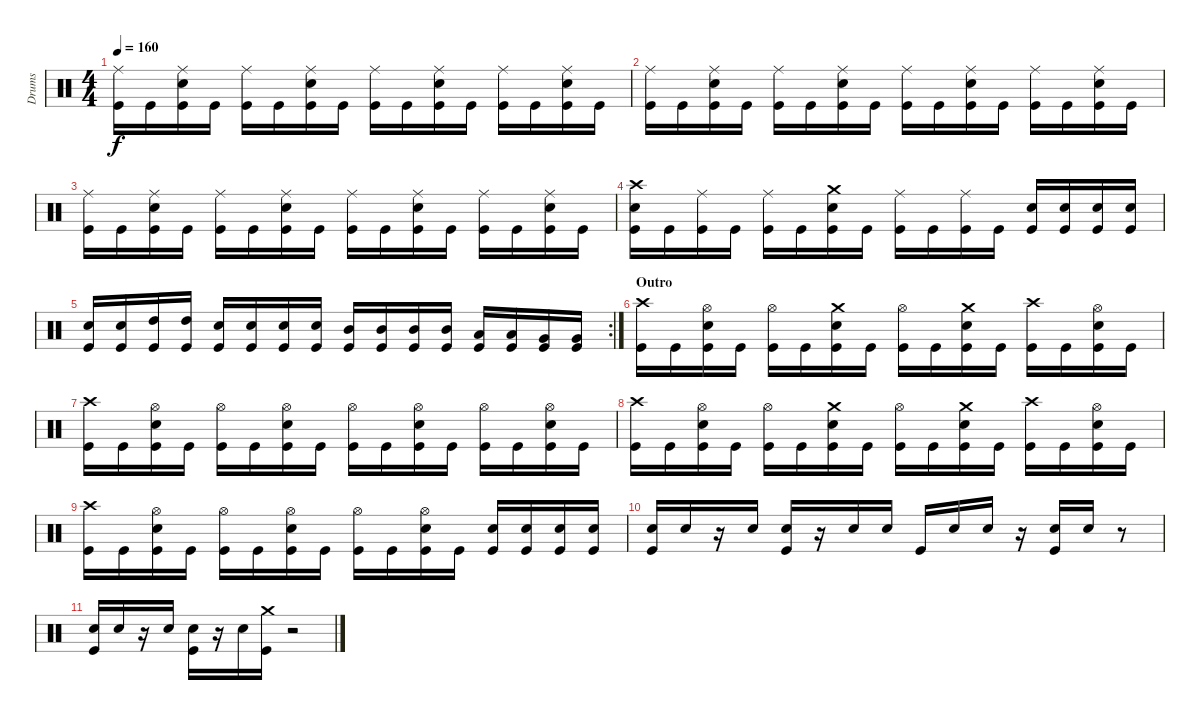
\track ("Drums" "Drums") {instrument percussion}
\staff {score}
\articulation defaults
\ts (4 4)
\tempo 160
\clef neutral
\ks c
("Ride (middle)" "Kick (hit)").16{dy f} "Kick (hit)".16 ("Ride (middle)" "Electric Snare (hit)" "Kick (hit)").16 "Kick (hit)".16 ("Ride (middle)" "Kick (hit)").16 "Kick (hit)".16 ("Ride (middle)" "Electric Snare (hit)" "Kick (hit)").16 "Kick (hit)".16 ("Ride (middle)" "Kick (hit)").16 "Kick (hit)".16 ("Ride (middle)" "Electric Snare (hit)" "Kick (hit)").16 "Kick (hit)".16 ("Ride (middle)" "Kick (hit)").16 "Kick (hit)".16 ("Ride (middle)" "Electric Snare (hit)" "Kick (hit)").16 "Kick (hit)".16 |
("Ride (middle)" "Kick (hit)").16 "Kick (hit)".16 ("Ride (middle)" "Electric Snare (hit)" "Kick (hit)").16 "Kick (hit)".16 ("Ride (middle)" "Kick (hit)").16 "Kick (hit)".16 ("Ride (middle)" "Electric Snare (hit)" "Kick (hit)").16 "Kick (hit)".16 ("Ride (middle)" "Kick (hit)").16 "Kick (hit)".16 ("Ride (middle)" "Electric Snare (hit)" "Kick (hit)").16 "Kick (hit)".16 ("Ride (middle)" "Kick (hit)").16 "Kick (hit)".16 ("Ride (middle)" "Electric Snare (hit)" "Kick (hit)").16 "Kick (hit)".16 |
("Ride (middle)" "Kick (hit)").16 "Kick (hit)".16 ("Ride (middle)" "Electric Snare (hit)" "Kick (hit)").16 "Kick (hit)".16 ("Ride (middle)" "Kick (hit)").16 "Kick (hit)".16 ("Ride (middle)" "Electric Snare (hit)" "Kick (hit)").16 "Kick (hit)".16 ("Ride (middle)" "Kick (hit)").16 "Kick (hit)".16 ("Ride (middle)" "Electric Snare (hit)" "Kick (hit)").16 "Kick (hit)".16 ("Ride (middle)" "Kick (hit)").16 "Kick (hit)".16 ("Ride (middle)" "Electric Snare (hit)" "Kick (hit)").16 "Kick (hit)".16 |
("Crash high (hit)" "Electric Snare (hit)" "Kick (hit)").16 "Kick (hit)".16 ("Ride (middle)" "Kick (hit)").16 "Kick (hit)".16 ("Ride (middle)" "Kick (hit)").16 "Kick (hit)".16 ("Crash medium (hit)" "Electric Snare (hit)" "Kick (hit)").16 "Kick (hit)".16 ("Ride (middle)" "Kick (hit)").16 "Kick (hit)".16 ("Ride (middle)" "Kick (hit)").16 "Kick (hit)".16 ("Electric Snare (hit)" "Kick (hit)").16 ("Electric Snare (hit)" "Kick (hit)").16 ("Electric Snare (hit)" "Kick (hit)").16 ("Electric Snare (hit)" "Kick (hit)").16 |
\rc 2
("Electric Snare (hit)" "Kick (hit)").16 ("Electric Snare (hit)" "Kick (hit)").16 ("High Tom (hit)" "Kick (hit)").16 ("High Tom (hit)" "Kick (hit)").16 ("Electric Snare (hit)" "Kick (hit)").16 ("Electric Snare (hit)" "Kick (hit)").16 ("Electric Snare (hit)" "Kick (hit)").16 ("Electric Snare (hit)" "Kick (hit)").16 ("Mid Tom (hit)" "Kick (hit)").16 ("Mid Tom (hit)" "Kick (hit)").16 ("Mid Tom (hit)" "Kick (hit)").16 ("Mid Tom (hit)" "Kick (hit)").16 ("Low Tom (hit)" "Kick (hit)").16 ("Low Tom (hit)" "Kick (hit)").16 ("Very Low Tom (hit)" "Kick (hit)").16 ("Very Low Tom (hit)" "Kick (hit)").16 |
\section ("" "Outro")
("Crash high (hit)" "Kick (hit)").16 "Kick (hit)".16 ("Hi-Hat (open)" "Electric Snare (hit)" "Kick (hit)").16 "Kick (hit)".16 ("Hi-Hat (open)" "Kick (hit)").16 "Kick (hit)".16 ("Crash medium (hit)" "Electric Snare (hit)" "Kick (hit)").16 "Kick (hit)".16 ("Hi-Hat (open)" "Kick (hit)").16 "Kick (hit)".16 ("Crash medium (hit)" "Electric Snare (hit)" "Kick (hit)").16 "Kick (hit)".16 ("Crash high (hit)" "Kick (hit)").16 "Kick (hit)".16 ("Hi-Hat (open)" "Electric Snare (hit)" "Kick (hit)").16 "Kick (hit)".16 |
("Crash high (hit)" "Kick (hit)").16 "Kick (hit)".16 ("Hi-Hat (open)" "Electric Snare (hit)" "Kick (hit)").16 "Kick (hit)".16 ("Hi-Hat (open)" "Kick (hit)").16 "Kick (hit)".16 ("Hi-Hat (open)" "Electric Snare (hit)" "Kick (hit)").16 "Kick (hit)".16 ("Hi-Hat (open)" "Kick (hit)").16 "Kick (hit)".16 ("Hi-Hat (open)" "Electric Snare (hit)" "Kick (hit)").16 "Kick (hit)".16 ("Hi-Hat (open)" "Kick (hit)").16 "Kick (hit)".16 ("Hi-Hat (open)" "Electric Snare (hit)" "Kick (hit)").16 "Kick (hit)".16 |
("Crash high (hit)" "Kick (hit)").16 "Kick (hit)".16 ("Hi-Hat (open)" "Electric Snare (hit)" "Kick (hit)").16 "Kick (hit)".16 ("Hi-Hat (open)" "Kick (hit)").16 "Kick (hit)".16 ("Crash medium (hit)" "Electric Snare (hit)" "Kick (hit)").16 "Kick (hit)".16 ("Hi-Hat (open)" "Kick (hit)").16 "Kick (hit)".16 ("Crash medium (hit)" "Electric Snare (hit)" "Kick (hit)").16 "Kick (hit)".16 ("Crash high (hit)" "Kick (hit)").16 "Kick (hit)".16 ("Hi-Hat (open)" "Electric Snare (hit)" "Kick (hit)").16 "Kick (hit)".16 |
("Crash high (hit)" "Kick (hit)").16 "Kick (hit)".16 ("Hi-Hat (open)" "Electric Snare (hit)" "Kick (hit)").16 "Kick (hit)".16 ("Hi-Hat (open)" "Kick (hit)").16 "Kick (hit)".16 ("Hi-Hat (open)" "Electric Snare (hit)" "Kick (hit)").16 "Kick (hit)".16 ("Hi-Hat (open)" "Kick (hit)").16 "Kick (hit)".16 ("Hi-Hat (open)" "Electric Snare (hit)" "Kick (hit)").16 "Kick (hit)".16 ("Electric Snare (hit)" "Kick (hit)").16 ("Electric Snare (hit)" "Kick (hit)").16 ("Electric Snare (hit)" "Kick (hit)").16 ("Electric Snare (hit)" "Kick (hit)").16 |
("Electric Snare (hit)" "Kick (hit)").16 "Electric Snare (hit)".16 r.16 "Electric Snare (hit)".16 ("Electric Snare (hit)" "Kick (hit)").16 r.16 "Electric Snare (hit)".16 "Electric Snare (hit)".16 "Kick (hit)".16 "Electric Snare (hit)".16 "Electric Snare (hit)".16 r.16 ("Electric Snare (hit)" "Kick (hit)").16 "Electric Snare (hit)".16 r.8 |
("Electric Snare (hit)" "Kick (hit)").16 "Electric Snare (hit)".16 r.16 "Electric Snare (hit)".16 ("Electric Snare (hit)" "Kick (hit)").16 r.16 "Electric Snare (hit)".16 ("Crash medium (hit)" "Kick (hit)").16 r.2
